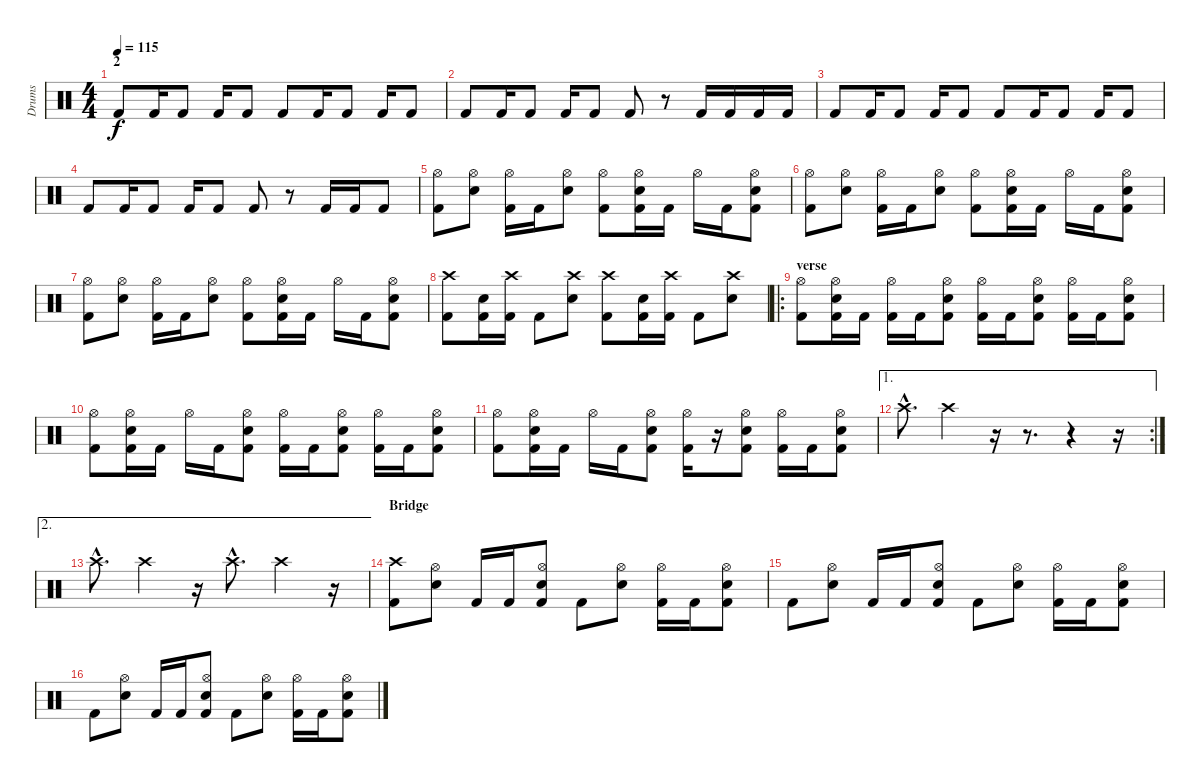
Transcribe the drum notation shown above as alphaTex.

\track ("Drums" "Drums") {instrument percussion}
\staff {score}
\articulation defaults
\ts (4 4)
\section ("" "2")
\tempo 115
\clef neutral
\ks c "Kick (hit) 2".8{dy f} "Kick (hit) 2".16 "Kick (hit) 2".8 "Kick (hit) 2".16 "Kick (hit) 2".8 "Kick (hit) 2".8 "Kick (hit) 2".16 "Kick (hit) 2".8 "Kick (hit) 2".16 "Kick (hit) 2".8
|
"Kick (hit) 2".8 "Kick (hit) 2".16 "Kick (hit) 2".8 "Kick (hit) 2".16 "Kick (hit) 2".8 "Kick (hit) 2".8 r.8 "Kick (hit) 2".16 "Kick (hit) 2".16 "Kick (hit) 2".16 "Kick (hit) 2".16 |
"Kick (hit) 2".8 "Kick (hit) 2".16 "Kick (hit) 2".8 "Kick (hit) 2".16 "Kick (hit) 2".8 "Kick (hit) 2".8 "Kick (hit) 2".16 "Kick (hit) 2".8 "Kick (hit) 2".16 "Kick (hit) 2".8 |
"Kick (hit) 2".8 "Kick (hit) 2".16 "Kick (hit) 2".8 "Kick (hit) 2".16 "Kick (hit) 2".8 "Kick (hit) 2".8 r.8 "Kick (hit) 2".16 "Kick (hit) 2".16 "Kick (hit) 2".8 |
\section ("" "")
("Hi-Hat (open)" "Kick (hit) 2").8 ("Hi-Hat (open)" "Snare (hit) 2").8 ("Hi-Hat (open)" "Kick (hit) 2").16 "Kick (hit) 2".16 ("Hi-Hat (open)" "Snare (hit) 2").8 ("Hi-Hat (open)" "Kick (hit) 2").8 ("Hi-Hat (open)" "Snare (hit) 2" "Kick (hit) 2").16 "Kick (hit) 2".16 "Hi-Hat (open)".16 "Kick (hit) 2".16 ("Hi-Hat (open)" "Snare (hit) 2" "Kick (hit) 2").8 |
("Hi-Hat (open)" "Kick (hit) 2").8 ("Hi-Hat (open)" "Snare (hit) 2").8 ("Hi-Hat (open)" "Kick (hit) 2").16 "Kick (hit) 2".16 ("Hi-Hat (open)" "Snare (hit) 2").8 ("Hi-Hat (open)" "Kick (hit) 2").8 ("Hi-Hat (open)" "Snare (hit) 2" "Kick (hit) 2").16 "Kick (hit) 2".16 "Hi-Hat (open)".16 "Kick (hit) 2".16 ("Hi-Hat (open)" "Snare (hit) 2" "Kick (hit) 2").8 |
("Hi-Hat (open)" "Kick (hit) 2").8 ("Hi-Hat (open)" "Snare (hit) 2").8 ("Hi-Hat (open)" "Kick (hit) 2").16 "Kick (hit) 2".16 ("Hi-Hat (open)" "Snare (hit) 2").8 ("Hi-Hat (open)" "Kick (hit) 2").8 ("Hi-Hat (open)" "Snare (hit) 2" "Kick (hit) 2").16 "Kick (hit) 2".16 "Hi-Hat (open)".16 "Kick (hit) 2".16 ("Hi-Hat (open)" "Snare (hit) 2" "Kick (hit) 2").8 |
("Crash high (hit)" "Kick (hit) 2").8 ("Snare (hit) 2" "Kick (hit) 2").16 ("Crash high (hit)" "Kick (hit) 2").16 "Kick (hit) 2".8 ("Crash high (hit)" "Snare (hit) 2").8 ("Crash high (hit)" "Kick (hit) 2").8 ("Snare (hit) 2" "Kick (hit) 2").16 ("Crash high (hit)" "Kick (hit) 2").16 "Kick (hit) 2".8 ("Crash high (hit)" "Snare (hit) 2").8 |
\ro
\section ("" "verse")
("Hi-Hat (open)" "Kick (hit) 2").8 ("Hi-Hat (open)" "Snare (hit) 2" "Kick (hit) 2").16 "Kick (hit) 2".16 ("Hi-Hat (open)" "Kick (hit) 2").16 "Kick (hit) 2".16 ("Hi-Hat (open)" "Snare (hit) 2" "Kick (hit) 2").8 ("Hi-Hat (open)" "Kick (hit) 2").16 "Kick (hit) 2".16 ("Hi-Hat (open)" "Snare (hit) 2" "Kick (hit) 2").8 ("Hi-Hat (open)" "Kick (hit) 2").16 "Kick (hit) 2".16 ("Hi-Hat (open)" "Snare (hit) 2" "Kick (hit) 2").8 |
("Hi-Hat (open)" "Kick (hit) 2").8 ("Hi-Hat (open)" "Snare (hit) 2" "Kick (hit) 2").16 "Kick (hit) 2".16 "Hi-Hat (open)".16 "Kick (hit) 2".16 ("Hi-Hat (open)" "Snare (hit) 2" "Kick (hit) 2").8 ("Hi-Hat (open)" "Kick (hit) 2").16 "Kick (hit) 2".16 ("Hi-Hat (open)" "Snare (hit) 2" "Kick (hit) 2").8 ("Hi-Hat (open)" "Kick (hit) 2").16 "Kick (hit) 2".16 ("Hi-Hat (open)" "Snare (hit) 2" "Kick (hit) 2").8 |
("Hi-Hat (open)" "Kick (hit) 2").8 ("Hi-Hat (open)" "Snare (hit) 2" "Kick (hit) 2").16 "Kick (hit) 2".16 "Hi-Hat (open)".16 "Kick (hit) 2".16 ("Hi-Hat (open)" "Snare (hit) 2" "Kick (hit) 2").8 ("Hi-Hat (open)" "Kick (hit) 2").16 r.16 ("Hi-Hat (open)" "Snare (hit) 2" "Kick (hit) 2").8 ("Hi-Hat (open)" "Kick (hit) 2").16 "Kick (hit) 2".16 ("Hi-Hat (open)" "Snare (hit) 2" "Kick (hit) 2").8 |
\ae 1
\rc 2 "Crash high (hit)"{hac}.8{d} "Crash high (hit)".4
r.16 r.8{d} r.4 r.16 |
\ae 2 "Crash high (hit)"{hac}.8{d} "Crash high (hit)".4
r.16 "Crash high (hit)"{hac}.8{d} "Crash high (hit)".4 r.16 |
\section ("" "Bridge")
("Crash high (hit)" "Kick (hit) 2").8 ("Hi-Hat (open)" "Snare (hit) 2").8 "Kick (hit) 2".16 "Kick (hit) 2".16 ("Hi-Hat (open)" "Snare (hit) 2" "Kick (hit) 2").8 "Kick (hit) 2".8 ("Hi-Hat (open)" "Snare (hit) 2").8 ("Hi-Hat (open)" "Kick (hit) 2").16 "Kick (hit) 2".16 ("Hi-Hat (open)" "Snare (hit) 2" "Kick (hit) 2").8 |
"Kick (hit) 2".8 ("Hi-Hat (open)" "Snare (hit) 2").8 "Kick (hit) 2".16 "Kick (hit) 2".16 ("Hi-Hat (open)" "Snare (hit) 2" "Kick (hit) 2").8 "Kick (hit) 2".8 ("Hi-Hat (open)" "Snare (hit) 2").8 ("Hi-Hat (open)" "Kick (hit) 2").16 "Kick (hit) 2".16 ("Hi-Hat (open)" "Snare (hit) 2" "Kick (hit) 2").8 |
"Kick (hit) 2".8 ("Hi-Hat (open)" "Snare (hit) 2").8 "Kick (hit) 2".16 "Kick (hit) 2".16 ("Hi-Hat (open)" "Snare (hit) 2" "Kick (hit) 2").8 "Kick (hit) 2".8 ("Hi-Hat (open)" "Snare (hit) 2").8 ("Hi-Hat (open)" "Kick (hit) 2").16 "Kick (hit) 2".16 ("Hi-Hat (open)" "Snare (hit) 2" "Kick (hit) 2").8
